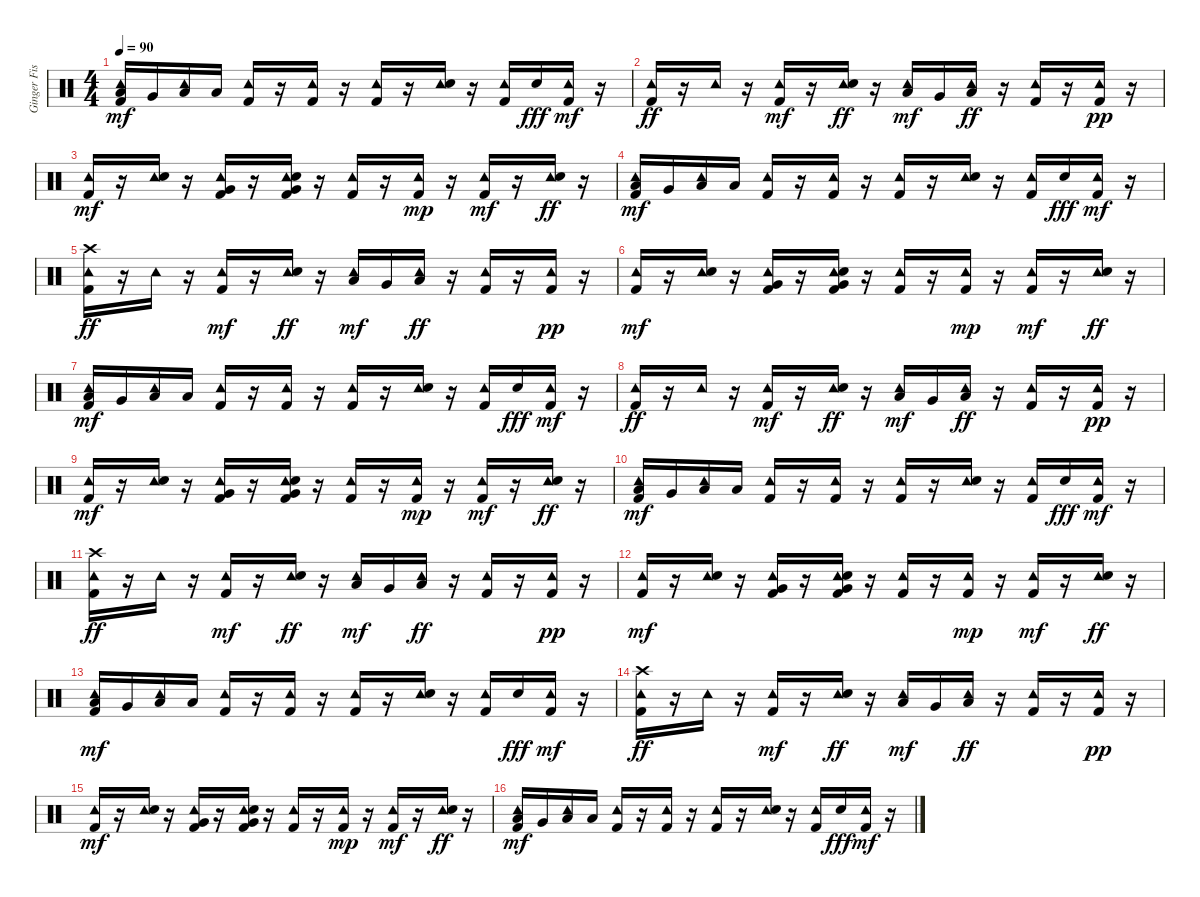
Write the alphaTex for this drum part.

\track ("Ginger Fish" "Ginger Fis") {instrument percussion}
\staff {score}
\articulation defaults
\ts (4 4)
\tempo 90
\clef neutral
\ks c
("Tambourine (hit)" "Kick (hit) 2" "Low Floor Tom (hit)").16{dy mf} "Very Low Tom (hit)".16 ("Tambourine (hit)" "Low Floor Tom (hit)").16 "Low Tom (hit)".16 ("Tambourine (hit)" "Kick (hit) 2").16 r.16 ("Tambourine (hit)" "Kick (hit) 2").16 r.16 ("Tambourine (hit)" "Kick (hit) 2").16 r.16 ("Tambourine (hit)" "Electric Snare (hit)").16 r.16 ("Tambourine (hit)" "Kick (hit) 2").16 "Electric Snare (hit)".16{dy fff} ("Tambourine (hit)" "Kick (hit) 2").16{dy mf} r.16 |
("Tambourine (hit)" "Kick (hit) 2").16{dy ff} r.16 "Tambourine (hit)".16 r.16 ("Tambourine (hit)" "Kick (hit) 2").16{dy mf} r.16 ("Tambourine (hit)" "Electric Snare (hit)").16{dy ff} r.16 ("Tambourine (hit)" "Low Floor Tom (hit)").16{dy mf} "Very Low Tom (hit)".16 ("Tambourine (hit)" "Low Floor Tom (hit)").16{dy ff} r.16 ("Tambourine (hit)" "Kick (hit) 2").16 r.16 ("Tambourine (hit)" "Kick (hit) 2").16{dy pp} r.16 |
("Tambourine (hit)" "Kick (hit) 2").16{dy mf} r.16 ("Tambourine (hit)" "Electric Snare (hit)").16 r.16 ("Tambourine (hit)" "Very Low Tom (hit)" "Kick (hit) 2").16 r.16 ("Tambourine (hit)" "Very Low Tom (hit)" "Electric Snare (hit)" "Kick (hit) 2").16 r.16 ("Tambourine (hit)" "Kick (hit) 2").16 r.16 ("Tambourine (hit)" "Kick (hit) 2").16{dy mp} r.16 ("Tambourine (hit)" "Kick (hit) 2").16{dy mf} r.16 ("Tambourine (hit)" "Electric Snare (hit)").16{dy ff} r.16 |
("Tambourine (hit)" "Kick (hit) 2" "Low Floor Tom (hit)").16{dy mf} "Very Low Tom (hit)".16 ("Tambourine (hit)" "Low Floor Tom (hit)").16 "Low Tom (hit)".16 ("Tambourine (hit)" "Kick (hit) 2").16 r.16 ("Tambourine (hit)" "Kick (hit) 2").16 r.16 ("Tambourine (hit)" "Kick (hit) 2").16 r.16 ("Tambourine (hit)" "Electric Snare (hit)").16 r.16 ("Tambourine (hit)" "Kick (hit) 2").16 "Electric Snare (hit)".16{dy fff} ("Tambourine (hit)" "Kick (hit) 2").16{dy mf} r.16 |
("Tambourine (hit)" "Crash high (hit)" "Kick (hit) 2").16{dy ff} r.16 "Tambourine (hit)".16 r.16 ("Tambourine (hit)" "Kick (hit) 2").16{dy mf} r.16 ("Tambourine (hit)" "Electric Snare (hit)").16{dy ff} r.16 ("Tambourine (hit)" "Low Floor Tom (hit)").16{dy mf} "Very Low Tom (hit)".16 ("Tambourine (hit)" "Low Floor Tom (hit)").16{dy ff} r.16 ("Tambourine (hit)" "Kick (hit) 2").16 r.16 ("Tambourine (hit)" "Kick (hit) 2").16{dy pp} r.16 |
("Tambourine (hit)" "Kick (hit) 2").16{dy mf} r.16 ("Tambourine (hit)" "Electric Snare (hit)").16 r.16 ("Tambourine (hit)" "Very Low Tom (hit)" "Kick (hit) 2").16 r.16 ("Tambourine (hit)" "Very Low Tom (hit)" "Electric Snare (hit)" "Kick (hit) 2").16 r.16 ("Tambourine (hit)" "Kick (hit) 2").16 r.16 ("Tambourine (hit)" "Kick (hit) 2").16{dy mp} r.16 ("Tambourine (hit)" "Kick (hit) 2").16{dy mf} r.16 ("Tambourine (hit)" "Electric Snare (hit)").16{dy ff} r.16 |
("Tambourine (hit)" "Kick (hit) 2" "Low Floor Tom (hit)").16{dy mf} "Very Low Tom (hit)".16 ("Tambourine (hit)" "Low Floor Tom (hit)").16 "Low Tom (hit)".16 ("Tambourine (hit)" "Kick (hit) 2").16 r.16 ("Tambourine (hit)" "Kick (hit) 2").16 r.16 ("Tambourine (hit)" "Kick (hit) 2").16 r.16 ("Tambourine (hit)" "Electric Snare (hit)").16 r.16 ("Tambourine (hit)" "Kick (hit) 2").16 "Electric Snare (hit)".16{dy fff} ("Tambourine (hit)" "Kick (hit) 2").16{dy mf} r.16 |
("Tambourine (hit)" "Kick (hit) 2").16{dy ff} r.16 "Tambourine (hit)".16 r.16 ("Tambourine (hit)" "Kick (hit) 2").16{dy mf} r.16 ("Tambourine (hit)" "Electric Snare (hit)").16{dy ff} r.16 ("Tambourine (hit)" "Low Floor Tom (hit)").16{dy mf} "Very Low Tom (hit)".16 ("Tambourine (hit)" "Low Floor Tom (hit)").16{dy ff} r.16 ("Tambourine (hit)" "Kick (hit) 2").16 r.16 ("Tambourine (hit)" "Kick (hit) 2").16{dy pp} r.16 |
("Tambourine (hit)" "Kick (hit) 2").16{dy mf} r.16 ("Tambourine (hit)" "Electric Snare (hit)").16 r.16 ("Tambourine (hit)" "Very Low Tom (hit)" "Kick (hit) 2").16 r.16 ("Tambourine (hit)" "Very Low Tom (hit)" "Electric Snare (hit)" "Kick (hit) 2").16 r.16 ("Tambourine (hit)" "Kick (hit) 2").16 r.16 ("Tambourine (hit)" "Kick (hit) 2").16{dy mp} r.16 ("Tambourine (hit)" "Kick (hit) 2").16{dy mf} r.16 ("Tambourine (hit)" "Electric Snare (hit)").16{dy ff} r.16 |
("Tambourine (hit)" "Kick (hit) 2" "Low Floor Tom (hit)").16{dy mf} "Very Low Tom (hit)".16 ("Tambourine (hit)" "Low Floor Tom (hit)").16 "Low Tom (hit)".16 ("Tambourine (hit)" "Kick (hit) 2").16 r.16 ("Tambourine (hit)" "Kick (hit) 2").16 r.16 ("Tambourine (hit)" "Kick (hit) 2").16 r.16 ("Tambourine (hit)" "Electric Snare (hit)").16 r.16 ("Tambourine (hit)" "Kick (hit) 2").16 "Electric Snare (hit)".16{dy fff} ("Tambourine (hit)" "Kick (hit) 2").16{dy mf} r.16 |
("Tambourine (hit)" "Crash high (hit)" "Kick (hit) 2").16{dy ff} r.16 "Tambourine (hit)".16 r.16 ("Tambourine (hit)" "Kick (hit) 2").16{dy mf} r.16 ("Tambourine (hit)" "Electric Snare (hit)").16{dy ff} r.16 ("Tambourine (hit)" "Low Floor Tom (hit)").16{dy mf} "Very Low Tom (hit)".16 ("Tambourine (hit)" "Low Floor Tom (hit)").16{dy ff} r.16 ("Tambourine (hit)" "Kick (hit) 2").16 r.16 ("Tambourine (hit)" "Kick (hit) 2").16{dy pp} r.16 |
("Tambourine (hit)" "Kick (hit) 2").16{dy mf} r.16 ("Tambourine (hit)" "Electric Snare (hit)").16 r.16 ("Tambourine (hit)" "Very Low Tom (hit)" "Kick (hit) 2").16 r.16 ("Tambourine (hit)" "Very Low Tom (hit)" "Electric Snare (hit)" "Kick (hit) 2").16 r.16 ("Tambourine (hit)" "Kick (hit) 2").16 r.16 ("Tambourine (hit)" "Kick (hit) 2").16{dy mp} r.16 ("Tambourine (hit)" "Kick (hit) 2").16{dy mf} r.16 ("Tambourine (hit)" "Electric Snare (hit)").16{dy ff} r.16 |
("Tambourine (hit)" "Kick (hit) 2" "Low Floor Tom (hit)").16{dy mf} "Very Low Tom (hit)".16 ("Tambourine (hit)" "Low Floor Tom (hit)").16 "Low Tom (hit)".16 ("Tambourine (hit)" "Kick (hit) 2").16 r.16 ("Tambourine (hit)" "Kick (hit) 2").16 r.16 ("Tambourine (hit)" "Kick (hit) 2").16 r.16 ("Tambourine (hit)" "Electric Snare (hit)").16 r.16 ("Tambourine (hit)" "Kick (hit) 2").16 "Electric Snare (hit)".16{dy fff} ("Tambourine (hit)" "Kick (hit) 2").16{dy mf} r.16 |
("Tambourine (hit)" "Crash high (hit)" "Kick (hit) 2").16{dy ff} r.16 "Tambourine (hit)".16 r.16 ("Tambourine (hit)" "Kick (hit) 2").16{dy mf} r.16 ("Tambourine (hit)" "Electric Snare (hit)").16{dy ff} r.16 ("Tambourine (hit)" "Low Floor Tom (hit)").16{dy mf} "Very Low Tom (hit)".16 ("Tambourine (hit)" "Low Floor Tom (hit)").16{dy ff} r.16 ("Tambourine (hit)" "Kick (hit) 2").16 r.16 ("Tambourine (hit)" "Kick (hit) 2").16{dy pp} r.16 |
("Tambourine (hit)" "Kick (hit) 2").16{dy mf} r.16 ("Tambourine (hit)" "Electric Snare (hit)").16 r.16 ("Tambourine (hit)" "Very Low Tom (hit)" "Kick (hit) 2").16 r.16 ("Tambourine (hit)" "Very Low Tom (hit)" "Electric Snare (hit)" "Kick (hit) 2").16 r.16 ("Tambourine (hit)" "Kick (hit) 2").16 r.16 ("Tambourine (hit)" "Kick (hit) 2").16{dy mp} r.16 ("Tambourine (hit)" "Kick (hit) 2").16{dy mf} r.16 ("Tambourine (hit)" "Electric Snare (hit)").16{dy ff} r.16 |
("Tambourine (hit)" "Kick (hit) 2" "Low Floor Tom (hit)").16{dy mf} "Very Low Tom (hit)".16 ("Tambourine (hit)" "Low Floor Tom (hit)").16 "Low Tom (hit)".16 ("Tambourine (hit)" "Kick (hit) 2").16 r.16 ("Tambourine (hit)" "Kick (hit) 2").16 r.16 ("Tambourine (hit)" "Kick (hit) 2").16 r.16 ("Tambourine (hit)" "Electric Snare (hit)").16 r.16 ("Tambourine (hit)" "Kick (hit) 2").16 "Electric Snare (hit)".16{dy fff} ("Tambourine (hit)" "Kick (hit) 2").16{dy mf} r.16
